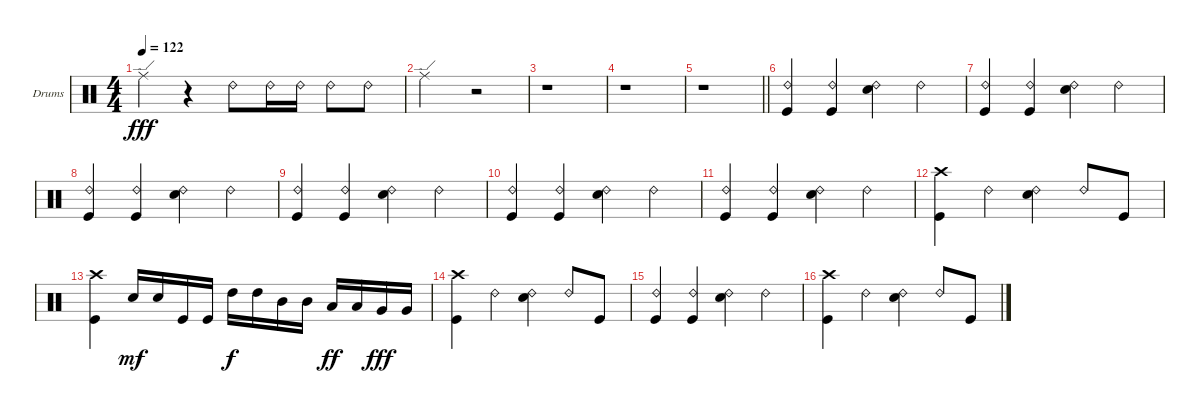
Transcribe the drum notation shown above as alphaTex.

\bracketExtendMode groupsimilarinstruments
\firstSystemTrackNameOrientation horizontal
\otherSystemsTrackNameOrientation horizontal
\track ("Drumkit" "Drums") {instrument percussion}
\staff {score}
\articulation defaults
\ts (4 4)
\tempo 122
\clef neutral
\ks c "Ride (edge)".4{dy fff}
r.4 "Ride (bell) 2".8 "Ride (bell) 2".16 "Ride (bell) 2".16 "Ride (bell) 2".8 "Ride (bell) 2".8 |
"Ride (edge)".2 r.2 |
r.1 |
r.1 |
\barLineRight lightlight
r.1 |
("Ride (bell) 2" "Kick (hit)").4 ("Ride (bell) 2" "Kick (hit)").4 ("Ride (bell) 2" "Snare (hit) 2").4 "Ride (bell) 2".4 |
("Ride (bell) 2" "Kick (hit)").4 ("Ride (bell) 2" "Kick (hit)").4 ("Ride (bell) 2" "Snare (hit) 2").4 "Ride (bell) 2".4 |
("Ride (bell) 2" "Kick (hit)").4 ("Ride (bell) 2" "Kick (hit)").4 ("Ride (bell) 2" "Snare (hit) 2").4 "Ride (bell) 2".4 |
("Ride (bell) 2" "Kick (hit)").4 ("Ride (bell) 2" "Kick (hit)").4 ("Ride (bell) 2" "Snare (hit) 2").4 "Ride (bell) 2".4 |
("Ride (bell) 2" "Kick (hit)").4 ("Ride (bell) 2" "Kick (hit)").4 ("Ride (bell) 2" "Snare (hit) 2").4 "Ride (bell) 2".4 |
("Ride (bell) 2" "Kick (hit)").4 ("Ride (bell) 2" "Kick (hit)").4 ("Ride (bell) 2" "Snare (hit) 2").4 "Ride (bell) 2".4 |
("Kick (hit)" "Crash high (hit)").4 "Ride (bell) 2".4 ("Ride (bell) 2" "Snare (hit) 2").4 "Ride (bell) 2".8 "Kick (hit)".8 |
("Kick (hit)" "Crash high (hit)").4 "Snare (hit) 2".16{dy mf} "Snare (hit) 2".16 "Kick (hit)".16 "Kick (hit)".16 "High Tom (hit)".16{dy f} "High Tom (hit)".16 "Mid Tom (hit)".16 "Mid Tom (hit)".16 "Low Tom (hit)".16{dy ff} "Low Tom (hit)".16 "Very Low Tom (hit)".16{dy fff} "Very Low Tom (hit)".16 |
("Kick (hit)" "Crash high (hit)").4 "Ride (bell) 2".4 ("Ride (bell) 2" "Snare (hit) 2").4 "Ride (bell) 2".8 "Kick (hit)".8 |
("Ride (bell) 2" "Kick (hit)").4 ("Ride (bell) 2" "Kick (hit)").4 ("Ride (bell) 2" "Snare (hit) 2").4 "Ride (bell) 2".4 |
("Kick (hit)" "Crash high (hit)").4 "Ride (bell) 2".4 ("Ride (bell) 2" "Snare (hit) 2").4 "Ride (bell) 2".8 "Kick (hit)".8
